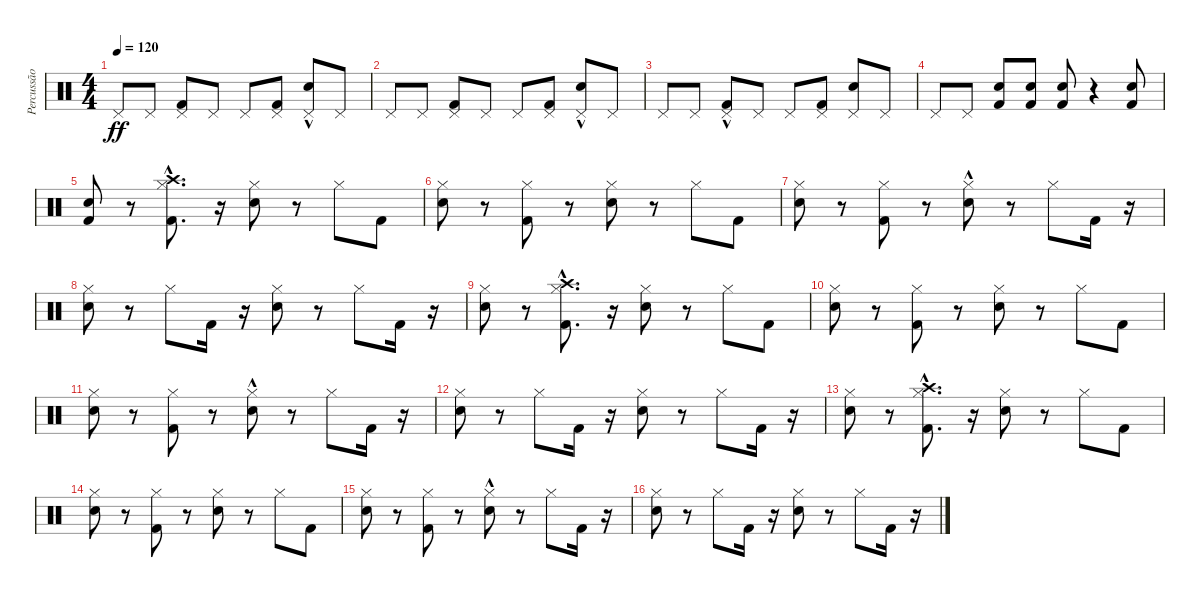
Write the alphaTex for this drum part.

\track ("Percussão" "Percussão") {instrument percussion}
\staff {score}
\articulation defaults
\ts (4 4)
\tempo 120
\clef neutral
\ks c "Pedal Hi-Hat (hit)".8{dy ff} "Pedal Hi-Hat (hit)".8
("Kick (hit) 2" "Pedal Hi-Hat (hit)").8 "Pedal Hi-Hat (hit)".8 "Pedal Hi-Hat (hit)".8 ("Kick (hit) 2" "Pedal Hi-Hat (hit)").8 ("Snare (hit) 2"{hac} "Pedal Hi-Hat (hit)").8 "Pedal Hi-Hat (hit)".8 |
"Pedal Hi-Hat (hit)".8 "Pedal Hi-Hat (hit)".8 ("Kick (hit) 2" "Pedal Hi-Hat (hit)").8 "Pedal Hi-Hat (hit)".8 "Pedal Hi-Hat (hit)".8 ("Kick (hit) 2" "Pedal Hi-Hat (hit)").8 ("Snare (hit) 2"{hac} "Pedal Hi-Hat (hit)").8 "Pedal Hi-Hat (hit)".8 |
"Pedal Hi-Hat (hit)".8 "Pedal Hi-Hat (hit)".8 ("Kick (hit) 2"{hac} "Pedal Hi-Hat (hit)").8 "Pedal Hi-Hat (hit)".8 "Pedal Hi-Hat (hit)".8 ("Kick (hit) 2" "Pedal Hi-Hat (hit)").8 ("Snare (hit) 2" "Pedal Hi-Hat (hit)").8 "Pedal Hi-Hat (hit)".8 |
"Pedal Hi-Hat (hit)".8 "Pedal Hi-Hat (hit)".8 ("Kick (hit) 2" "Snare (hit) 2").8 ("Snare (hit) 2" "Kick (hit) 2").8 ("Kick (hit) 2" "Snare (hit) 2").8 r.4 ("Snare (hit) 2" "Kick (hit) 2").8 |
("Snare (hit) 2" "Kick (hit) 2").8 r.8 ("Kick (hit) 2" "Hi-Hat (closed)" "Crash high (hit)"{hac}).8{d} r.16 ("Snare (hit) 2" "Hi-Hat (closed)").8 r.8 "Hi-Hat (closed)".8 "Kick (hit) 2".8 |
("Snare (hit) 2" "Hi-Hat (closed)").8 r.8 ("Kick (hit) 2" "Hi-Hat (closed)").8 r.8 ("Snare (hit) 2" "Hi-Hat (closed)").8 r.8 "Hi-Hat (closed)".8 "Kick (hit) 2".8 |
("Snare (hit) 2" "Hi-Hat (closed)").8 r.8 ("Kick (hit) 2" "Hi-Hat (closed)").8 r.8 ("Hi-Hat (closed)" "Snare (hit) 2"{hac}).8 r.8 "Hi-Hat (closed)".8 "Kick (hit) 2".16 r.16 |
("Hi-Hat (closed)" "Snare (hit) 2").8 r.8 "Hi-Hat (closed)".8 "Kick (hit) 2".16 r.16 ("Hi-Hat (closed)" "Snare (hit) 2").8 r.8 "Hi-Hat (closed)".8 "Kick (hit) 2".16 r.16 |
("Hi-Hat (closed)" "Snare (hit) 2").8 r.8 ("Kick (hit) 2" "Hi-Hat (closed)" "Crash high (hit)"{hac}).8{d} r.16 ("Snare (hit) 2" "Hi-Hat (closed)").8 r.8 "Hi-Hat (closed)".8 "Kick (hit) 2".8 |
("Snare (hit) 2" "Hi-Hat (closed)").8 r.8 ("Kick (hit) 2" "Hi-Hat (closed)").8 r.8 ("Snare (hit) 2" "Hi-Hat (closed)").8 r.8 "Hi-Hat (closed)".8 "Kick (hit) 2".8 |
("Snare (hit) 2" "Hi-Hat (closed)").8 r.8 ("Kick (hit) 2" "Hi-Hat (closed)").8 r.8 ("Hi-Hat (closed)" "Snare (hit) 2"{hac}).8 r.8 "Hi-Hat (closed)".8 "Kick (hit) 2".16 r.16 |
("Hi-Hat (closed)" "Snare (hit) 2").8 r.8 "Hi-Hat (closed)".8 "Kick (hit) 2".16 r.16 ("Hi-Hat (closed)" "Snare (hit) 2").8 r.8 "Hi-Hat (closed)".8 "Kick (hit) 2".16 r.16 |
("Hi-Hat (closed)" "Snare (hit) 2").8 r.8 ("Kick (hit) 2" "Hi-Hat (closed)" "Crash high (hit)"{hac}).8{d} r.16 ("Snare (hit) 2" "Hi-Hat (closed)").8 r.8 "Hi-Hat (closed)".8 "Kick (hit) 2".8 |
("Snare (hit) 2" "Hi-Hat (closed)").8 r.8 ("Kick (hit) 2" "Hi-Hat (closed)").8 r.8 ("Snare (hit) 2" "Hi-Hat (closed)").8 r.8 "Hi-Hat (closed)".8 "Kick (hit) 2".8 |
("Snare (hit) 2" "Hi-Hat (closed)").8 r.8 ("Kick (hit) 2" "Hi-Hat (closed)").8 r.8 ("Hi-Hat (closed)" "Snare (hit) 2"{hac}).8 r.8 "Hi-Hat (closed)".8 "Kick (hit) 2".16 r.16 |
("Hi-Hat (closed)" "Snare (hit) 2").8 r.8 "Hi-Hat (closed)".8 "Kick (hit) 2".16 r.16 ("Hi-Hat (closed)" "Snare (hit) 2").8 r.8 "Hi-Hat (closed)".8 "Kick (hit) 2".16 r.16
